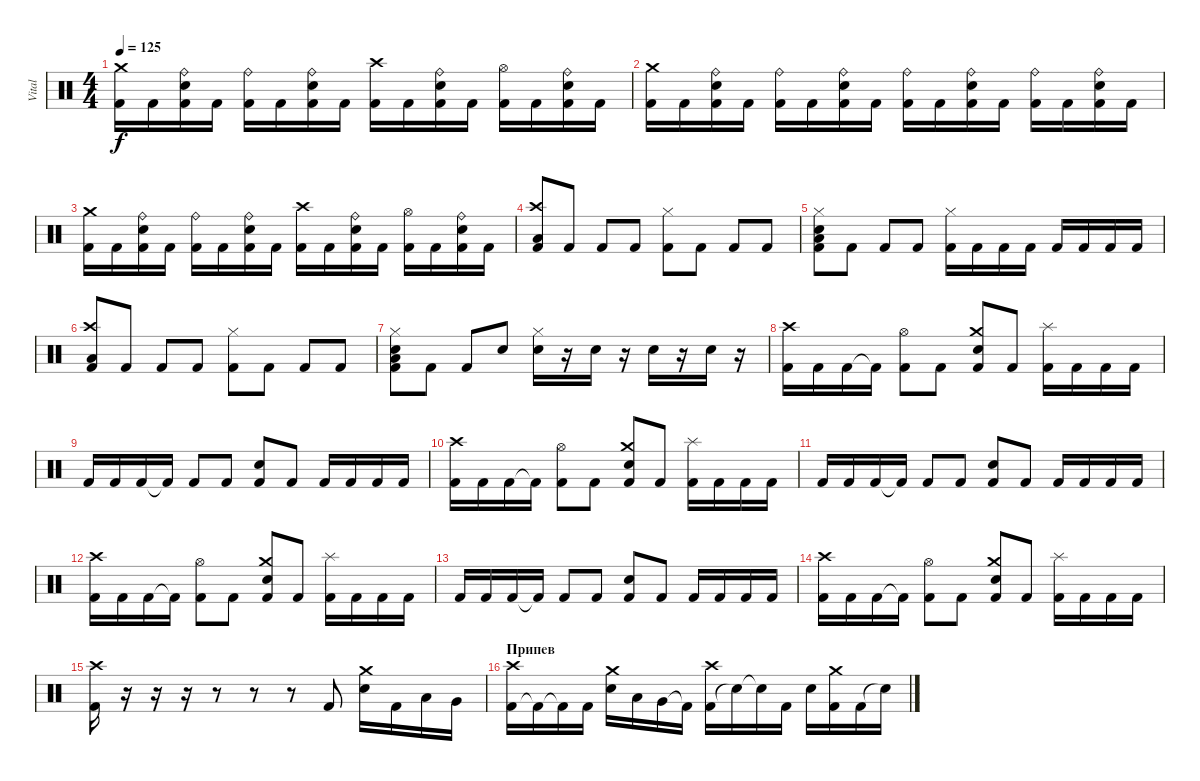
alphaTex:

\track ("Vital" "Vital") {instrument percussion}
\staff {score}
\articulation defaults
\ts (4 4)
\tempo 125
\clef neutral
\ks c
("Kick (hit) 2" "Crash medium (hit)").16{dy f} "Kick (hit) 2".16 ("Snare (hit) 2" "Kick (hit) 2" "Ride (bell)").16 "Kick (hit) 2".16 ("Kick (hit) 2" "Ride (bell)").16 "Kick (hit) 2".16 ("Snare (hit) 2" "Kick (hit) 2" "Ride (bell)").16 "Kick (hit) 2".16 ("Kick (hit) 2" "Crash high (hit)").16 "Kick (hit) 2".16 ("Snare (hit) 2" "Kick (hit) 2" "Ride (bell)").16 "Kick (hit) 2".16 ("Kick (hit) 2" "Hi-Hat (open)").16 "Kick (hit) 2".16 ("Kick (hit) 2" "Snare (hit) 2" "Ride (bell)").16 "Kick (hit) 2".16 |
("Kick (hit) 2" "Crash medium (hit)").16 "Kick (hit) 2".16 ("Snare (hit) 2" "Kick (hit) 2" "Ride (bell)").16 "Kick (hit) 2".16 ("Kick (hit) 2" "Ride (bell)").16 "Kick (hit) 2".16 ("Snare (hit) 2" "Kick (hit) 2" "Ride (bell)").16 "Kick (hit) 2".16 ("Kick (hit) 2" "Ride (bell)").16 "Kick (hit) 2".16 ("Snare (hit) 2" "Kick (hit) 2" "Ride (bell)").16 "Kick (hit) 2".16 ("Kick (hit) 2" "Ride (bell)").16 "Kick (hit) 2".16 ("Kick (hit) 2" "Snare (hit) 2" "Ride (bell)").16 "Kick (hit) 2".16 |
("Kick (hit) 2" "Crash medium (hit)").16 "Kick (hit) 2".16 ("Snare (hit) 2" "Kick (hit) 2" "Ride (bell)").16 "Kick (hit) 2".16 ("Kick (hit) 2" "Ride (bell)").16 "Kick (hit) 2".16 ("Snare (hit) 2" "Kick (hit) 2" "Ride (bell)").16 "Kick (hit) 2".16 ("Kick (hit) 2" "Crash high (hit)").16 "Kick (hit) 2".16 ("Snare (hit) 2" "Kick (hit) 2" "Ride (bell)").16 "Kick (hit) 2".16 ("Kick (hit) 2" "Hi-Hat (open)").16 "Kick (hit) 2".16 ("Kick (hit) 2" "Snare (hit) 2" "Ride (bell)").16 "Kick (hit) 2".16 |
("Kick (hit) 2" "Crash high (hit)" "Low Floor Tom (hit)").8 "Kick (hit) 2".8 "Kick (hit) 2".8 "Kick (hit) 2".8 ("Kick (hit) 2" "Hi-Hat (closed)").8 "Kick (hit) 2".8 "Kick (hit) 2".8 "Kick (hit) 2".8 |
("Kick (hit) 2" "Hi-Hat (closed)" "Snare (hit) 2" "Low Floor Tom (hit)").8 "Kick (hit) 2".8 "Kick (hit) 2".8 "Kick (hit) 2".8 ("Kick (hit) 2" "Hi-Hat (closed)").16 "Kick (hit) 2".16 "Kick (hit) 2".16 "Kick (hit) 2".16 "Kick (hit) 2".16 "Kick (hit) 2".16 "Kick (hit) 2".16 "Kick (hit) 2".16 |
("Kick (hit) 2" "Crash high (hit)" "Low Floor Tom (hit)").8 "Kick (hit) 2".8 "Kick (hit) 2".8 "Kick (hit) 2".8 ("Kick (hit) 2" "Hi-Hat (closed)").8 "Kick (hit) 2".8 "Kick (hit) 2".8 "Kick (hit) 2".8 |
("Kick (hit) 2" "Hi-Hat (closed)" "Snare (hit) 2" "Low Floor Tom (hit)").8 "Kick (hit) 2".8 "Kick (hit) 2".8 "Snare (hit) 2".8 ("Snare (hit) 2" "Hi-Hat (closed)").16 r.16 "Snare (hit) 2".16 r.16 "Snare (hit) 2".16 r.16 "Snare (hit) 2".16 r.16 |
("Kick (hit) 2" "Crash high (hit)").16 "Kick (hit) 2".16 "Kick (hit) 2".16 "Kick (hit) 2"{t}.16 ("Kick (hit) 2" "Hi-Hat (open)").8 "Kick (hit) 2".8 ("Kick (hit) 2" "Crash medium (hit)" "Snare (hit) 2").8 "Kick (hit) 2".8 ("Kick (hit) 2" "Splash (hit)").16 "Kick (hit) 2".16 "Kick (hit) 2".16 "Kick (hit) 2".16 |
"Kick (hit) 2".16 "Kick (hit) 2".16 "Kick (hit) 2".16 "Kick (hit) 2"{t}.16 "Kick (hit) 2".8 "Kick (hit) 2".8 ("Kick (hit) 2" "Snare (hit) 2").8 "Kick (hit) 2".8 "Kick (hit) 2".16 "Kick (hit) 2".16 "Kick (hit) 2".16 "Kick (hit) 2".16 |
("Kick (hit) 2" "Crash high (hit)").16 "Kick (hit) 2".16 "Kick (hit) 2".16 "Kick (hit) 2"{t}.16 ("Kick (hit) 2" "Hi-Hat (open)").8 "Kick (hit) 2".8 ("Kick (hit) 2" "Crash medium (hit)" "Snare (hit) 2").8 "Kick (hit) 2".8 ("Kick (hit) 2" "Splash (hit)").16 "Kick (hit) 2".16 "Kick (hit) 2".16 "Kick (hit) 2".16 |
"Kick (hit) 2".16 "Kick (hit) 2".16 "Kick (hit) 2".16 "Kick (hit) 2"{t}.16 "Kick (hit) 2".8 "Kick (hit) 2".8 ("Kick (hit) 2" "Snare (hit) 2").8 "Kick (hit) 2".8 "Kick (hit) 2".16 "Kick (hit) 2".16 "Kick (hit) 2".16 "Kick (hit) 2".16 |
("Kick (hit) 2" "Crash high (hit)").16 "Kick (hit) 2".16 "Kick (hit) 2".16 "Kick (hit) 2"{t}.16 ("Kick (hit) 2" "Hi-Hat (open)").8 "Kick (hit) 2".8 ("Kick (hit) 2" "Crash medium (hit)" "Snare (hit) 2").8 "Kick (hit) 2".8 ("Kick (hit) 2" "Splash (hit)").16 "Kick (hit) 2".16 "Kick (hit) 2".16 "Kick (hit) 2".16 |
"Kick (hit) 2".16 "Kick (hit) 2".16 "Kick (hit) 2".16 "Kick (hit) 2"{t}.16 "Kick (hit) 2".8 "Kick (hit) 2".8 ("Kick (hit) 2" "Snare (hit) 2").8 "Kick (hit) 2".8 "Kick (hit) 2".16 "Kick (hit) 2".16 "Kick (hit) 2".16 "Kick (hit) 2".16 |
("Kick (hit) 2" "Crash high (hit)").16 "Kick (hit) 2".16 "Kick (hit) 2".16 "Kick (hit) 2"{t}.16 ("Kick (hit) 2" "Hi-Hat (open)").8 "Kick (hit) 2".8 ("Kick (hit) 2" "Crash medium (hit)" "Snare (hit) 2").8 "Kick (hit) 2".8 ("Kick (hit) 2" "Splash (hit)").16 "Kick (hit) 2".16 "Kick (hit) 2".16 "Kick (hit) 2".16 |
("Kick (hit) 2" "Crash high (hit)").16 r.16 r.16 r.16 r.8 r.8 r.8 "Kick (hit) 2".8 ("Snare (hit) 2" "Crash medium (hit)").16 "Kick (hit) 2".16 "Low Tom (hit)".16 "Very Low Tom (hit)".16 |
\section ("" "Припев ")
("Kick (hit) 2" "Crash high (hit)").16 "Kick (hit) 2"{t}.16 "Kick (hit) 2"{t}.16 "Kick (hit) 2".16 ("Snare (hit) 2" "Crash medium (hit)").16 "Low Tom (hit)".16 "Very Low Tom (hit)".16 "Kick (hit) 2"{t}.16 ("Kick (hit) 2" "Crash high (hit)").16 "Snare (hit)"{t}.16 "Snare (hit)"{t}.16 "Kick (hit) 2".16 "Snare (hit) 2".16 ("Kick (hit) 2" "Crash medium (hit)").16 "Kick (hit) 2".16 "Snare (hit)"{t}.16
